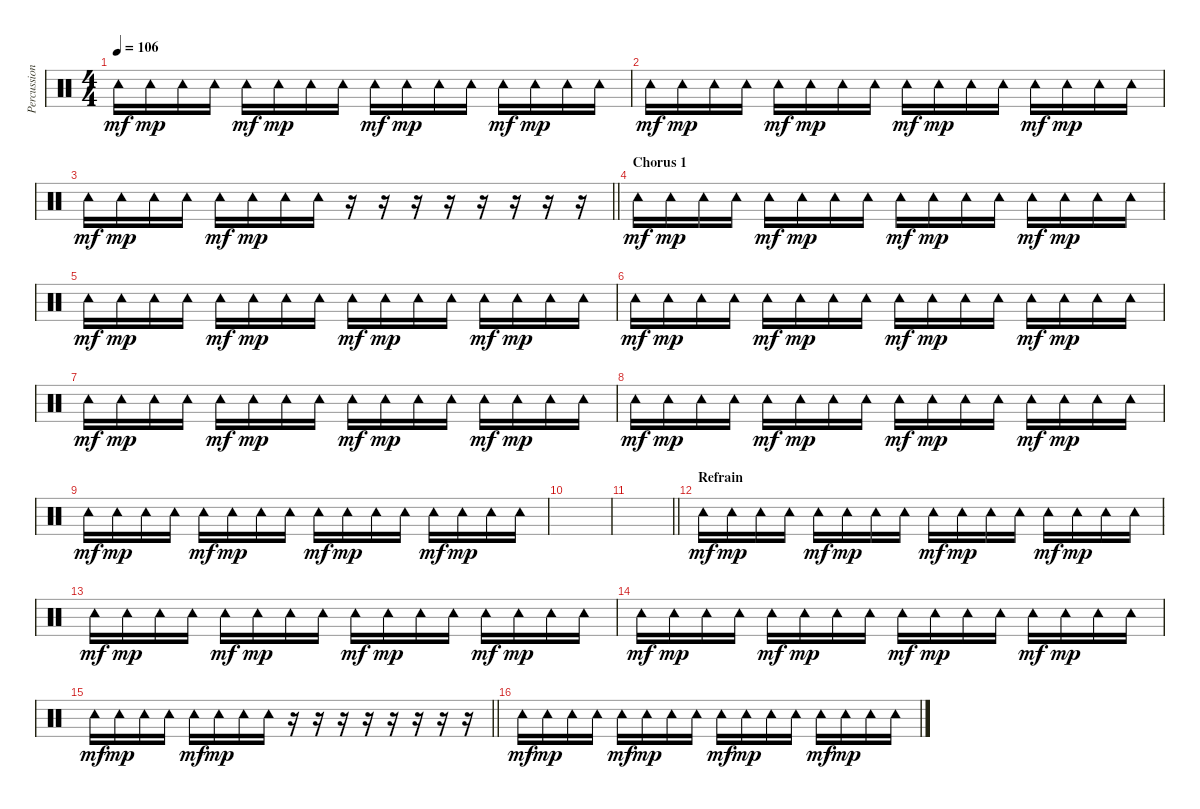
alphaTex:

\track ("Percussion (Tre Cool)" "Percussion") {instrument percussion}
\staff {score}
\articulation defaults
\ts (4 4)
\tempo 106
\clef neutral
\ks c "Tambourine (hit)".16{dy mf} "Tambourine (hit)".16{dy mp} "Tambourine (hit)".16 "Tambourine (hit)".16 "Tambourine (hit)".16{dy mf} "Tambourine (hit)".16{dy mp} "Tambourine (hit)".16 "Tambourine (hit)".16 "Tambourine (hit)".16{dy mf} "Tambourine (hit)".16{dy mp} "Tambourine (hit)".16 "Tambourine (hit)".16 "Tambourine (hit)".16{dy mf} "Tambourine (hit)".16{dy mp} "Tambourine (hit)".16 "Tambourine (hit)".16
|
"Tambourine (hit)".16{dy mf} "Tambourine (hit)".16{dy mp} "Tambourine (hit)".16 "Tambourine (hit)".16 "Tambourine (hit)".16{dy mf} "Tambourine (hit)".16{dy mp} "Tambourine (hit)".16 "Tambourine (hit)".16 "Tambourine (hit)".16{dy mf} "Tambourine (hit)".16{dy mp} "Tambourine (hit)".16 "Tambourine (hit)".16 "Tambourine (hit)".16{dy mf} "Tambourine (hit)".16{dy mp} "Tambourine (hit)".16 "Tambourine (hit)".16 |
\barLineRight lightlight "Tambourine (hit)".16{dy mf} "Tambourine (hit)".16{dy mp} "Tambourine (hit)".16 "Tambourine (hit)".16 "Tambourine (hit)".16{dy mf} "Tambourine (hit)".16{dy mp} "Tambourine (hit)".16 "Tambourine (hit)".16
r.16 r.16 r.16 r.16 r.16 r.16 r.16 r.16 |
\section ("" "Chorus 1")
"Tambourine (hit)".16{dy mf} "Tambourine (hit)".16{dy mp} "Tambourine (hit)".16 "Tambourine (hit)".16 "Tambourine (hit)".16{dy mf} "Tambourine (hit)".16{dy mp} "Tambourine (hit)".16 "Tambourine (hit)".16 "Tambourine (hit)".16{dy mf} "Tambourine (hit)".16{dy mp} "Tambourine (hit)".16 "Tambourine (hit)".16 "Tambourine (hit)".16{dy mf} "Tambourine (hit)".16{dy mp} "Tambourine (hit)".16 "Tambourine (hit)".16 |
"Tambourine (hit)".16{dy mf} "Tambourine (hit)".16{dy mp} "Tambourine (hit)".16 "Tambourine (hit)".16 "Tambourine (hit)".16{dy mf} "Tambourine (hit)".16{dy mp} "Tambourine (hit)".16 "Tambourine (hit)".16 "Tambourine (hit)".16{dy mf} "Tambourine (hit)".16{dy mp} "Tambourine (hit)".16 "Tambourine (hit)".16 "Tambourine (hit)".16{dy mf} "Tambourine (hit)".16{dy mp} "Tambourine (hit)".16 "Tambourine (hit)".16 |
"Tambourine (hit)".16{dy mf} "Tambourine (hit)".16{dy mp} "Tambourine (hit)".16 "Tambourine (hit)".16 "Tambourine (hit)".16{dy mf} "Tambourine (hit)".16{dy mp} "Tambourine (hit)".16 "Tambourine (hit)".16 "Tambourine (hit)".16{dy mf} "Tambourine (hit)".16{dy mp} "Tambourine (hit)".16 "Tambourine (hit)".16 "Tambourine (hit)".16{dy mf} "Tambourine (hit)".16{dy mp} "Tambourine (hit)".16 "Tambourine (hit)".16 |
"Tambourine (hit)".16{dy mf} "Tambourine (hit)".16{dy mp} "Tambourine (hit)".16 "Tambourine (hit)".16 "Tambourine (hit)".16{dy mf} "Tambourine (hit)".16{dy mp} "Tambourine (hit)".16 "Tambourine (hit)".16 "Tambourine (hit)".16{dy mf} "Tambourine (hit)".16{dy mp} "Tambourine (hit)".16 "Tambourine (hit)".16 "Tambourine (hit)".16{dy mf} "Tambourine (hit)".16{dy mp} "Tambourine (hit)".16 "Tambourine (hit)".16 |
"Tambourine (hit)".16{dy mf} "Tambourine (hit)".16{dy mp} "Tambourine (hit)".16 "Tambourine (hit)".16 "Tambourine (hit)".16{dy mf} "Tambourine (hit)".16{dy mp} "Tambourine (hit)".16 "Tambourine (hit)".16 "Tambourine (hit)".16{dy mf} "Tambourine (hit)".16{dy mp} "Tambourine (hit)".16 "Tambourine (hit)".16 "Tambourine (hit)".16{dy mf} "Tambourine (hit)".16{dy mp} "Tambourine (hit)".16 "Tambourine (hit)".16 |
"Tambourine (hit)".16{dy mf} "Tambourine (hit)".16{dy mp} "Tambourine (hit)".16 "Tambourine (hit)".16 "Tambourine (hit)".16{dy mf} "Tambourine (hit)".16{dy mp} "Tambourine (hit)".16 "Tambourine (hit)".16 "Tambourine (hit)".16{dy mf} "Tambourine (hit)".16{dy mp} "Tambourine (hit)".16 "Tambourine (hit)".16 "Tambourine (hit)".16{dy mf} "Tambourine (hit)".16{dy mp} "Tambourine (hit)".16 "Tambourine (hit)".16 |
|
\barLineRight lightlight
|
\section ("" "Refrain")
"Tambourine (hit)".16{dy mf} "Tambourine (hit)".16{dy mp} "Tambourine (hit)".16 "Tambourine (hit)".16 "Tambourine (hit)".16{dy mf} "Tambourine (hit)".16{dy mp} "Tambourine (hit)".16 "Tambourine (hit)".16 "Tambourine (hit)".16{dy mf} "Tambourine (hit)".16{dy mp} "Tambourine (hit)".16 "Tambourine (hit)".16 "Tambourine (hit)".16{dy mf} "Tambourine (hit)".16{dy mp} "Tambourine (hit)".16 "Tambourine (hit)".16 |
"Tambourine (hit)".16{dy mf} "Tambourine (hit)".16{dy mp} "Tambourine (hit)".16 "Tambourine (hit)".16 "Tambourine (hit)".16{dy mf} "Tambourine (hit)".16{dy mp} "Tambourine (hit)".16 "Tambourine (hit)".16 "Tambourine (hit)".16{dy mf} "Tambourine (hit)".16{dy mp} "Tambourine (hit)".16 "Tambourine (hit)".16 "Tambourine (hit)".16{dy mf} "Tambourine (hit)".16{dy mp} "Tambourine (hit)".16 "Tambourine (hit)".16 |
"Tambourine (hit)".16{dy mf} "Tambourine (hit)".16{dy mp} "Tambourine (hit)".16 "Tambourine (hit)".16 "Tambourine (hit)".16{dy mf} "Tambourine (hit)".16{dy mp} "Tambourine (hit)".16 "Tambourine (hit)".16 "Tambourine (hit)".16{dy mf} "Tambourine (hit)".16{dy mp} "Tambourine (hit)".16 "Tambourine (hit)".16 "Tambourine (hit)".16{dy mf} "Tambourine (hit)".16{dy mp} "Tambourine (hit)".16 "Tambourine (hit)".16 |
\barLineRight lightlight "Tambourine (hit)".16{dy mf} "Tambourine (hit)".16{dy mp} "Tambourine (hit)".16 "Tambourine (hit)".16 "Tambourine (hit)".16{dy mf} "Tambourine (hit)".16{dy mp} "Tambourine (hit)".16 "Tambourine (hit)".16
r.16 r.16 r.16 r.16 r.16 r.16 r.16 r.16 |
"Tambourine (hit)".16{dy mf} "Tambourine (hit)".16{dy mp} "Tambourine (hit)".16 "Tambourine (hit)".16 "Tambourine (hit)".16{dy mf} "Tambourine (hit)".16{dy mp} "Tambourine (hit)".16 "Tambourine (hit)".16 "Tambourine (hit)".16{dy mf} "Tambourine (hit)".16{dy mp} "Tambourine (hit)".16 "Tambourine (hit)".16 "Tambourine (hit)".16{dy mf} "Tambourine (hit)".16{dy mp} "Tambourine (hit)".16 "Tambourine (hit)".16
